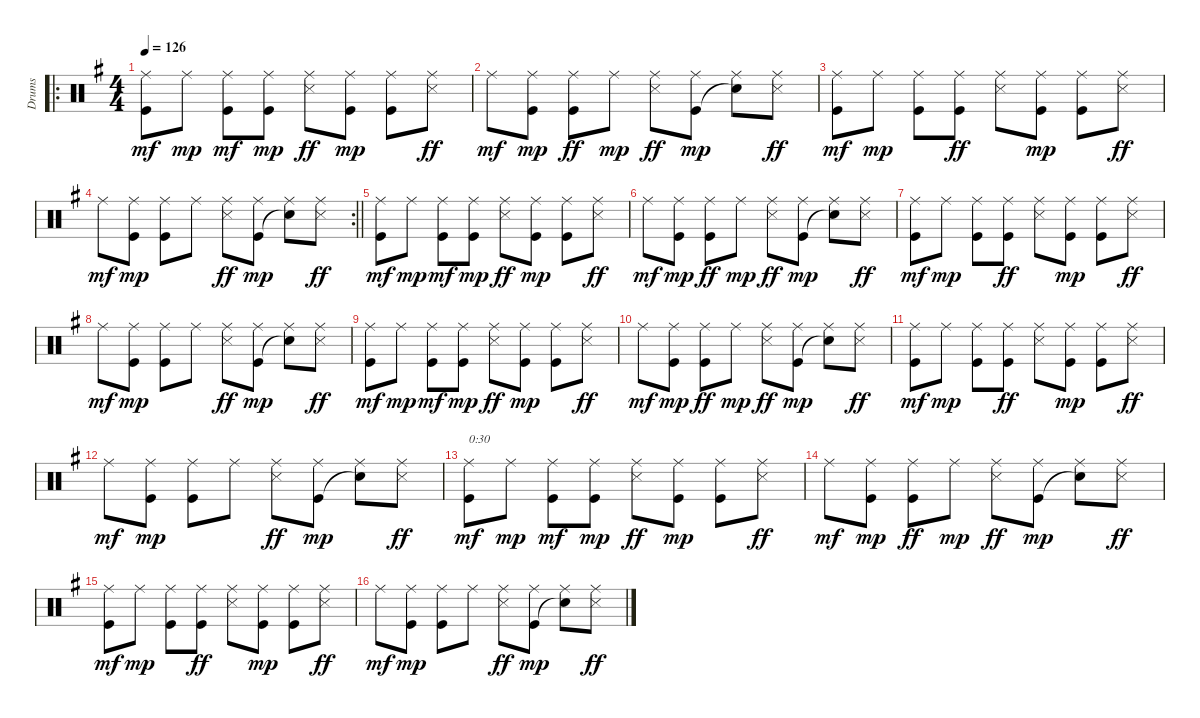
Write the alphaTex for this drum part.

\track ("Drums" "Drums") {instrument percussion}
\staff {score}
\articulation defaults
\ro
\ts (4 4)
\tempo 126
\clef neutral
\ks g
("Ride (middle)" "Kick (hit)").8{dy mf} "Ride (middle)".8{dy mp} ("Ride (middle)" "Kick (hit)").8{dy mf} ("Ride (middle)" "Kick (hit)").8{dy mp} ("Ride (middle)" "Snare (side stick) 3").8{dy ff} ("Ride (middle)" "Kick (hit)").8{dy mp} ("Ride (middle)" "Kick (hit)").8 ("Ride (middle)" "Snare (side stick) 3").8{dy ff} |
"Ride (middle)".8{dy mf} ("Ride (middle)" "Kick (hit)").8{dy mp} ("Ride (middle)" "Kick (hit)").8{dy ff} "Ride (middle)".8{dy mp} ("Ride (middle)" "Snare (side stick) 3").8{dy ff} ("Ride (middle)" "Kick (hit)").8{dy mp} ("Ride (middle)" "Snare (hit)"{t}).8 ("Ride (middle)" "Snare (side stick) 3").8{dy ff} |
("Ride (middle)" "Kick (hit)").8{dy mf} "Ride (middle)".8{dy mp} ("Ride (middle)" "Kick (hit)").8 ("Ride (middle)" "Kick (hit)").8{dy ff} ("Ride (middle)" "Snare (side stick) 3").8 ("Ride (middle)" "Kick (hit)").8{dy mp} ("Ride (middle)" "Kick (hit)").8 ("Ride (middle)" "Snare (side stick) 3").8{dy ff} |
\rc 2
\barLineRight lightlight "Ride (middle)".8{dy mf}
("Ride (middle)" "Kick (hit)").8{dy mp} ("Ride (middle)" "Kick (hit)").8 "Ride (middle)".8 ("Ride (middle)" "Snare (side stick) 3").8{dy ff} ("Ride (middle)" "Kick (hit)").8{dy mp} ("Ride (middle)" "Snare (hit)"{t}).8 ("Ride (middle)" "Snare (side stick) 3").8{dy ff} |
("Ride (middle)" "Kick (hit)").8{dy mf} "Ride (middle)".8{dy mp} ("Ride (middle)" "Kick (hit)").8{dy mf} ("Ride (middle)" "Kick (hit)").8{dy mp} ("Ride (middle)" "Snare (side stick) 3").8{dy ff} ("Ride (middle)" "Kick (hit)").8{dy mp} ("Ride (middle)" "Kick (hit)").8 ("Ride (middle)" "Snare (side stick) 3").8{dy ff} |
"Ride (middle)".8{dy mf} ("Ride (middle)" "Kick (hit)").8{dy mp} ("Ride (middle)" "Kick (hit)").8{dy ff} "Ride (middle)".8{dy mp} ("Ride (middle)" "Snare (side stick) 3").8{dy ff} ("Ride (middle)" "Kick (hit)").8{dy mp} ("Ride (middle)" "Snare (hit)"{t}).8 ("Ride (middle)" "Snare (side stick) 3").8{dy ff} |
("Ride (middle)" "Kick (hit)").8{dy mf} "Ride (middle)".8{dy mp} ("Ride (middle)" "Kick (hit)").8 ("Ride (middle)" "Kick (hit)").8{dy ff} ("Ride (middle)" "Snare (side stick) 3").8 ("Ride (middle)" "Kick (hit)").8{dy mp} ("Ride (middle)" "Kick (hit)").8 ("Ride (middle)" "Snare (side stick) 3").8{dy ff} |
"Ride (middle)".8{dy mf} ("Ride (middle)" "Kick (hit)").8{dy mp} ("Ride (middle)" "Kick (hit)").8 "Ride (middle)".8 ("Ride (middle)" "Snare (side stick) 3").8{dy ff} ("Ride (middle)" "Kick (hit)").8{dy mp} ("Ride (middle)" "Snare (hit)"{t}).8 ("Ride (middle)" "Snare (side stick) 3").8{dy ff} |
("Ride (middle)" "Kick (hit)").8{dy mf} "Ride (middle)".8{dy mp} ("Ride (middle)" "Kick (hit)").8{dy mf} ("Ride (middle)" "Kick (hit)").8{dy mp} ("Ride (middle)" "Snare (side stick) 3").8{dy ff} ("Ride (middle)" "Kick (hit)").8{dy mp} ("Ride (middle)" "Kick (hit)").8 ("Ride (middle)" "Snare (side stick) 3").8{dy ff} |
"Ride (middle)".8{dy mf} ("Ride (middle)" "Kick (hit)").8{dy mp} ("Ride (middle)" "Kick (hit)").8{dy ff} "Ride (middle)".8{dy mp} ("Ride (middle)" "Snare (side stick) 3").8{dy ff} ("Ride (middle)" "Kick (hit)").8{dy mp} ("Ride (middle)" "Snare (hit)"{t}).8 ("Ride (middle)" "Snare (side stick) 3").8{dy ff} |
("Ride (middle)" "Kick (hit)").8{dy mf} "Ride (middle)".8{dy mp} ("Ride (middle)" "Kick (hit)").8 ("Ride (middle)" "Kick (hit)").8{dy ff} ("Ride (middle)" "Snare (side stick) 3").8 ("Ride (middle)" "Kick (hit)").8{dy mp} ("Ride (middle)" "Kick (hit)").8 ("Ride (middle)" "Snare (side stick) 3").8{dy ff} |
"Ride (middle)".8{dy mf} ("Ride (middle)" "Kick (hit)").8{dy mp} ("Ride (middle)" "Kick (hit)").8 "Ride (middle)".8 ("Ride (middle)" "Snare (side stick) 3").8{dy ff} ("Ride (middle)" "Kick (hit)").8{dy mp} ("Ride (middle)" "Snare (hit)"{t}).8 ("Ride (middle)" "Snare (side stick) 3").8{dy ff} |
("Ride (middle)" "Kick (hit)").8{txt "0:30" dy mf} "Ride (middle)".8{dy mp} ("Ride (middle)" "Kick (hit)").8{dy mf} ("Ride (middle)" "Kick (hit)").8{dy mp} ("Ride (middle)" "Snare (side stick) 3").8{dy ff} ("Ride (middle)" "Kick (hit)").8{dy mp} ("Ride (middle)" "Kick (hit)").8 ("Ride (middle)" "Snare (side stick) 3").8{dy ff} |
"Ride (middle)".8{dy mf} ("Ride (middle)" "Kick (hit)").8{dy mp} ("Ride (middle)" "Kick (hit)").8{dy ff} "Ride (middle)".8{dy mp} ("Ride (middle)" "Snare (side stick) 3").8{dy ff} ("Ride (middle)" "Kick (hit)").8{dy mp} ("Ride (middle)" "Snare (hit)"{t}).8 ("Ride (middle)" "Snare (side stick) 3").8{dy ff} |
("Ride (middle)" "Kick (hit)").8{dy mf} "Ride (middle)".8{dy mp} ("Ride (middle)" "Kick (hit)").8 ("Ride (middle)" "Kick (hit)").8{dy ff} ("Ride (middle)" "Snare (side stick) 3").8 ("Ride (middle)" "Kick (hit)").8{dy mp} ("Ride (middle)" "Kick (hit)").8 ("Ride (middle)" "Snare (side stick) 3").8{dy ff} |
"Ride (middle)".8{dy mf} ("Ride (middle)" "Kick (hit)").8{dy mp} ("Ride (middle)" "Kick (hit)").8 "Ride (middle)".8 ("Ride (middle)" "Snare (side stick) 3").8{dy ff} ("Ride (middle)" "Kick (hit)").8{dy mp} ("Ride (middle)" "Snare (hit)"{t}).8 ("Ride (middle)" "Snare (side stick) 3").8{dy ff}
